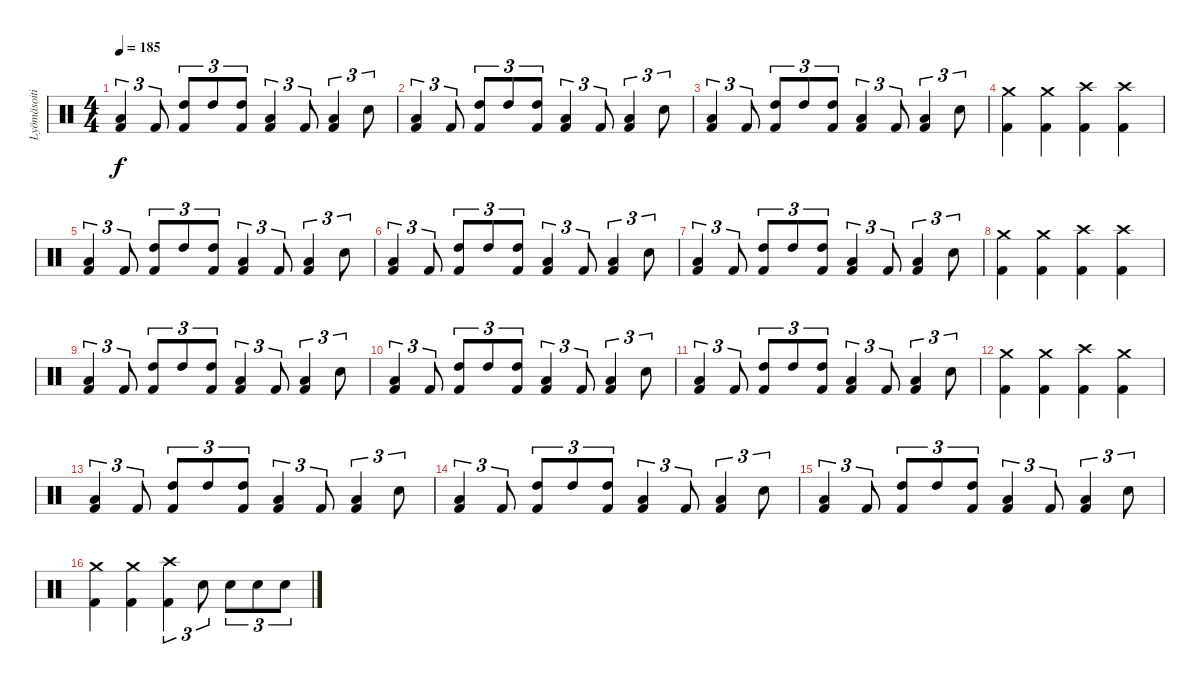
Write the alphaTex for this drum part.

\track ("Lyömäsoitin" "Lyömäsoiti") {instrument percussion}
\staff {score}
\articulation defaults
\ts (4 4)
\tempo 185
\clef neutral
\ks c
("Low Tom (hit)" "Kick (hit) 2").4{tu (3 2) dy f} "Kick (hit) 2".8{tu (3 2)} ("High Tom (hit)" "Kick (hit) 2").8{tu (3 2)} "High Tom (hit)".8{tu (3 2)} ("High Tom (hit)" "Kick (hit) 2").8{tu (3 2)} ("Low Tom (hit)" "Kick (hit) 2").4{tu (3 2)} "Kick (hit) 2".8{tu (3 2)} ("Low Tom (hit)" "Kick (hit) 2").4{tu (3 2)} "Snare (hit) 2".8{tu (3 2)} |
("Low Tom (hit)" "Kick (hit) 2").4{tu (3 2)} "Kick (hit) 2".8{tu (3 2)} ("High Tom (hit)" "Kick (hit) 2").8{tu (3 2)} "High Tom (hit)".8{tu (3 2)} ("High Tom (hit)" "Kick (hit) 2").8{tu (3 2)} ("Low Tom (hit)" "Kick (hit) 2").4{tu (3 2)} "Kick (hit) 2".8{tu (3 2)} ("Low Tom (hit)" "Kick (hit) 2").4{tu (3 2)} "Snare (hit) 2".8{tu (3 2)} |
("Low Tom (hit)" "Kick (hit) 2").4{tu (3 2)} "Kick (hit) 2".8{tu (3 2)} ("High Tom (hit)" "Kick (hit) 2").8{tu (3 2)} "High Tom (hit)".8{tu (3 2)} ("High Tom (hit)" "Kick (hit) 2").8{tu (3 2)} ("Low Tom (hit)" "Kick (hit) 2").4{tu (3 2)} "Kick (hit) 2".8{tu (3 2)} ("Low Tom (hit)" "Kick (hit) 2").4{tu (3 2)} "Snare (hit) 2".8{tu (3 2)} |
("Crash medium (hit)" "Kick (hit) 2").4 ("Crash medium (hit)" "Kick (hit) 2").4 ("Crash high (hit)" "Kick (hit) 2").4 ("Crash high (hit)" "Kick (hit) 2").4 |
("Low Tom (hit)" "Kick (hit) 2").4{tu (3 2)} "Kick (hit) 2".8{tu (3 2)} ("High Tom (hit)" "Kick (hit) 2").8{tu (3 2)} "High Tom (hit)".8{tu (3 2)} ("High Tom (hit)" "Kick (hit) 2").8{tu (3 2)} ("Low Tom (hit)" "Kick (hit) 2").4{tu (3 2)} "Kick (hit) 2".8{tu (3 2)} ("Low Tom (hit)" "Kick (hit) 2").4{tu (3 2)} "Snare (hit) 2".8{tu (3 2)} |
("Low Tom (hit)" "Kick (hit) 2").4{tu (3 2)} "Kick (hit) 2".8{tu (3 2)} ("High Tom (hit)" "Kick (hit) 2").8{tu (3 2)} "High Tom (hit)".8{tu (3 2)} ("High Tom (hit)" "Kick (hit) 2").8{tu (3 2)} ("Low Tom (hit)" "Kick (hit) 2").4{tu (3 2)} "Kick (hit) 2".8{tu (3 2)} ("Low Tom (hit)" "Kick (hit) 2").4{tu (3 2)} "Snare (hit) 2".8{tu (3 2)} |
("Low Tom (hit)" "Kick (hit) 2").4{tu (3 2)} "Kick (hit) 2".8{tu (3 2)} ("High Tom (hit)" "Kick (hit) 2").8{tu (3 2)} "High Tom (hit)".8{tu (3 2)} ("High Tom (hit)" "Kick (hit) 2").8{tu (3 2)} ("Low Tom (hit)" "Kick (hit) 2").4{tu (3 2)} "Kick (hit) 2".8{tu (3 2)} ("Low Tom (hit)" "Kick (hit) 2").4{tu (3 2)} "Snare (hit) 2".8{tu (3 2)} |
("Crash medium (hit)" "Kick (hit) 2").4 ("Crash medium (hit)" "Kick (hit) 2").4 ("Crash high (hit)" "Kick (hit) 2").4 ("Crash high (hit)" "Kick (hit) 2").4 |
("Low Tom (hit)" "Kick (hit) 2").4{tu (3 2)} "Kick (hit) 2".8{tu (3 2)} ("High Tom (hit)" "Kick (hit) 2").8{tu (3 2)} "High Tom (hit)".8{tu (3 2)} ("High Tom (hit)" "Kick (hit) 2").8{tu (3 2)} ("Low Tom (hit)" "Kick (hit) 2").4{tu (3 2)} "Kick (hit) 2".8{tu (3 2)} ("Low Tom (hit)" "Kick (hit) 2").4{tu (3 2)} "Snare (hit) 2".8{tu (3 2)} |
("Low Tom (hit)" "Kick (hit) 2").4{tu (3 2)} "Kick (hit) 2".8{tu (3 2)} ("High Tom (hit)" "Kick (hit) 2").8{tu (3 2)} "High Tom (hit)".8{tu (3 2)} ("High Tom (hit)" "Kick (hit) 2").8{tu (3 2)} ("Low Tom (hit)" "Kick (hit) 2").4{tu (3 2)} "Kick (hit) 2".8{tu (3 2)} ("Low Tom (hit)" "Kick (hit) 2").4{tu (3 2)} "Snare (hit) 2".8{tu (3 2)} |
("Low Tom (hit)" "Kick (hit) 2").4{tu (3 2)} "Kick (hit) 2".8{tu (3 2)} ("High Tom (hit)" "Kick (hit) 2").8{tu (3 2)} "High Tom (hit)".8{tu (3 2)} ("High Tom (hit)" "Kick (hit) 2").8{tu (3 2)} ("Low Tom (hit)" "Kick (hit) 2").4{tu (3 2)} "Kick (hit) 2".8{tu (3 2)} ("Low Tom (hit)" "Kick (hit) 2").4{tu (3 2)} "Snare (hit) 2".8{tu (3 2)} |
("Crash medium (hit)" "Kick (hit) 2").4 ("Crash medium (hit)" "Kick (hit) 2").4 ("Crash high (hit)" "Kick (hit) 2").4 ("Crash medium (hit)" "Kick (hit) 2").4 |
("Low Tom (hit)" "Kick (hit) 2").4{tu (3 2)} "Kick (hit) 2".8{tu (3 2)} ("High Tom (hit)" "Kick (hit) 2").8{tu (3 2)} "High Tom (hit)".8{tu (3 2)} ("High Tom (hit)" "Kick (hit) 2").8{tu (3 2)} ("Low Tom (hit)" "Kick (hit) 2").4{tu (3 2)} "Kick (hit) 2".8{tu (3 2)} ("Low Tom (hit)" "Kick (hit) 2").4{tu (3 2)} "Snare (hit) 2".8{tu (3 2)} |
("Low Tom (hit)" "Kick (hit) 2").4{tu (3 2)} "Kick (hit) 2".8{tu (3 2)} ("High Tom (hit)" "Kick (hit) 2").8{tu (3 2)} "High Tom (hit)".8{tu (3 2)} ("High Tom (hit)" "Kick (hit) 2").8{tu (3 2)} ("Low Tom (hit)" "Kick (hit) 2").4{tu (3 2)} "Kick (hit) 2".8{tu (3 2)} ("Low Tom (hit)" "Kick (hit) 2").4{tu (3 2)} "Snare (hit) 2".8{tu (3 2)} |
("Low Tom (hit)" "Kick (hit) 2").4{tu (3 2)} "Kick (hit) 2".8{tu (3 2)} ("High Tom (hit)" "Kick (hit) 2").8{tu (3 2)} "High Tom (hit)".8{tu (3 2)} ("High Tom (hit)" "Kick (hit) 2").8{tu (3 2)} ("Low Tom (hit)" "Kick (hit) 2").4{tu (3 2)} "Kick (hit) 2".8{tu (3 2)} ("Low Tom (hit)" "Kick (hit) 2").4{tu (3 2)} "Snare (hit) 2".8{tu (3 2)} |
("Crash medium (hit)" "Kick (hit) 2").4 ("Crash medium (hit)" "Kick (hit) 2").4 ("Crash high (hit)" "Kick (hit) 2").4{tu (3 2)} "Snare (hit) 2".8{tu (3 2)} "Snare (hit) 2".8{tu (3 2)} "Snare (hit) 2".8{tu (3 2)} "Snare (hit) 2".8{tu (3 2)}
